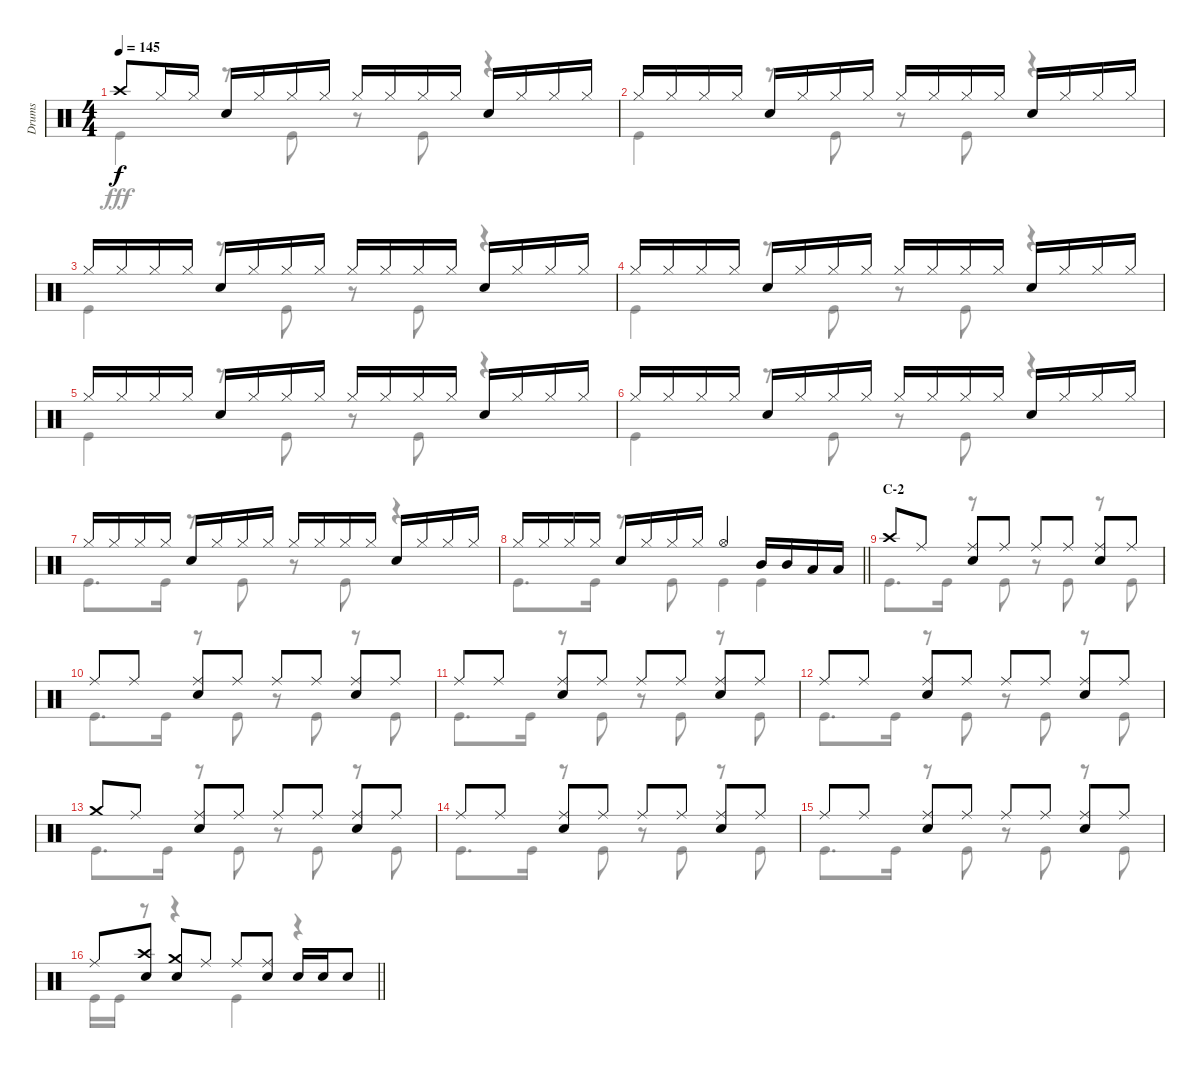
\track ("Drums" "Drums") {instrument percussion}
\staff {score}
\articulation defaults
\voice
\ts (4 4)
\tempo 145
\clef neutral
\ks c "Crash high (hit)".8{dy f} "Hi-Hat (closed)".16 "Hi-Hat (closed)".16 "Snare (hit) 2".16 "Hi-Hat (closed)".16 "Hi-Hat (closed)".16 "Hi-Hat (closed)".16 "Hi-Hat (closed)".16 "Hi-Hat (closed)".16 "Hi-Hat (closed)".16 "Hi-Hat (closed)".16 "Snare (hit) 2".16 "Hi-Hat (closed)".16 "Hi-Hat (closed)".16 "Hi-Hat (closed)".16
|
"Hi-Hat (closed)".16 "Hi-Hat (closed)".16 "Hi-Hat (closed)".16 "Hi-Hat (closed)".16 "Snare (hit) 2".16 "Hi-Hat (closed)".16 "Hi-Hat (closed)".16 "Hi-Hat (closed)".16 "Hi-Hat (closed)".16 "Hi-Hat (closed)".16 "Hi-Hat (closed)".16 "Hi-Hat (closed)".16 "Snare (hit) 2".16 "Hi-Hat (closed)".16 "Hi-Hat (closed)".16 "Hi-Hat (closed)".16 |
"Hi-Hat (closed)".16 "Hi-Hat (closed)".16 "Hi-Hat (closed)".16 "Hi-Hat (closed)".16 "Snare (hit) 2".16 "Hi-Hat (closed)".16 "Hi-Hat (closed)".16 "Hi-Hat (closed)".16 "Hi-Hat (closed)".16 "Hi-Hat (closed)".16 "Hi-Hat (closed)".16 "Hi-Hat (closed)".16 "Snare (hit) 2".16 "Hi-Hat (closed)".16 "Hi-Hat (closed)".16 "Hi-Hat (closed)".16 |
"Hi-Hat (closed)".16 "Hi-Hat (closed)".16 "Hi-Hat (closed)".16 "Hi-Hat (closed)".16 "Snare (hit) 2".16 "Hi-Hat (closed)".16 "Hi-Hat (closed)".16 "Hi-Hat (closed)".16 "Hi-Hat (closed)".16 "Hi-Hat (closed)".16 "Hi-Hat (closed)".16 "Hi-Hat (closed)".16 "Snare (hit) 2".16 "Hi-Hat (closed)".16 "Hi-Hat (closed)".16 "Hi-Hat (closed)".16 |
"Hi-Hat (closed)".16 "Hi-Hat (closed)".16 "Hi-Hat (closed)".16 "Hi-Hat (closed)".16 "Snare (hit) 2".16 "Hi-Hat (closed)".16 "Hi-Hat (closed)".16 "Hi-Hat (closed)".16 "Hi-Hat (closed)".16 "Hi-Hat (closed)".16 "Hi-Hat (closed)".16 "Hi-Hat (closed)".16 "Snare (hit) 2".16 "Hi-Hat (closed)".16 "Hi-Hat (closed)".16 "Hi-Hat (closed)".16 |
"Hi-Hat (closed)".16 "Hi-Hat (closed)".16 "Hi-Hat (closed)".16 "Hi-Hat (closed)".16 "Snare (hit) 2".16 "Hi-Hat (closed)".16 "Hi-Hat (closed)".16 "Hi-Hat (closed)".16 "Hi-Hat (closed)".16 "Hi-Hat (closed)".16 "Hi-Hat (closed)".16 "Hi-Hat (closed)".16 "Snare (hit) 2".16 "Hi-Hat (closed)".16 "Hi-Hat (closed)".16 "Hi-Hat (closed)".16 |
"Hi-Hat (closed)".16 "Hi-Hat (closed)".16 "Hi-Hat (closed)".16 "Hi-Hat (closed)".16 "Snare (hit) 2".16 "Hi-Hat (closed)".16 "Hi-Hat (closed)".16 "Hi-Hat (closed)".16 "Hi-Hat (closed)".16 "Hi-Hat (closed)".16 "Hi-Hat (closed)".16 "Hi-Hat (closed)".16 "Snare (hit) 2".16 "Hi-Hat (closed)".16 "Hi-Hat (closed)".16 "Hi-Hat (closed)".16 |
\barLineRight lightlight "Hi-Hat (closed)".16 "Hi-Hat (closed)".16 "Hi-Hat (closed)".16 "Hi-Hat (closed)".16 "Snare (hit) 2".16 "Hi-Hat (closed)".16 "Hi-Hat (closed)".16 "Hi-Hat (closed)".16 "Hi-Hat (open)".4 "Mid Tom (hit)".16 "Mid Tom (hit)".16 "Low Tom (hit)".16 "Low Tom (hit)".16
|
\section ("" "C-2")
"Crash high (hit)".8 "Ride (middle)".8 ("Ride (middle)" "Snare (hit) 2").8 "Ride (middle)".8 "Ride (middle)".8 "Ride (middle)".8 ("Ride (middle)" "Snare (hit) 2").8 "Ride (middle)".8 |
"Ride (middle)".8 "Ride (middle)".8 ("Ride (middle)" "Snare (hit) 2").8 "Ride (middle)".8 "Ride (middle)".8 "Ride (middle)".8 ("Ride (middle)" "Snare (hit) 2").8 "Ride (middle)".8 |
"Ride (middle)".8 "Ride (middle)".8 ("Ride (middle)" "Snare (hit) 2").8 "Ride (middle)".8 "Ride (middle)".8 "Ride (middle)".8 ("Ride (middle)" "Snare (hit) 2").8 "Ride (middle)".8 |
"Ride (middle)".8 "Ride (middle)".8 ("Ride (middle)" "Snare (hit) 2").8 "Ride (middle)".8 "Ride (middle)".8 "Ride (middle)".8 ("Ride (middle)" "Snare (hit) 2").8 "Ride (middle)".8 |
"Crash medium (hit)".8 "Ride (middle)".8 ("Ride (middle)" "Snare (hit) 2").8 "Ride (middle)".8 "Ride (middle)".8 "Ride (middle)".8 ("Ride (middle)" "Snare (hit) 2").8 "Ride (middle)".8 |
"Ride (middle)".8 "Ride (middle)".8 ("Ride (middle)" "Snare (hit) 2").8 "Ride (middle)".8 "Ride (middle)".8 "Ride (middle)".8 ("Ride (middle)" "Snare (hit) 2").8 "Ride (middle)".8 |
"Ride (middle)".8 "Ride (middle)".8 ("Ride (middle)" "Snare (hit) 2").8 "Ride (middle)".8 "Ride (middle)".8 "Ride (middle)".8 ("Ride (middle)" "Snare (hit) 2").8 "Ride (middle)".8 |
\barLineRight lightlight "Ride (middle)".8
("Crash high (hit)" "Snare (hit) 2").8 ("Crash medium (hit)" "Snare (hit) 2").8 "Ride (middle)".8 "Ride (middle)".8 ("Ride (middle)" "Snare (hit) 2").8 "Snare (hit) 2".16 "Snare (hit) 2".16 "Snare (hit) 2".8
\voice
\clef neutral
\ottava regular
\simile none
\ks c "Kick (hit)".4{dy fff}
r.8 "Kick (hit)".8 r.8 "Kick (hit)".8 r.4 |
"Kick (hit)".4 r.8 "Kick (hit)".8 r.8 "Kick (hit)".8 r.4 |
"Kick (hit)".4 r.8 "Kick (hit)".8 r.8 "Kick (hit)".8 r.4 |
"Kick (hit)".4 r.8 "Kick (hit)".8 r.8 "Kick (hit)".8 r.4 |
"Kick (hit)".4 r.8 "Kick (hit)".8 r.8 "Kick (hit)".8 r.4 |
"Kick (hit)".4 r.8 "Kick (hit)".8 r.8 "Kick (hit)".8 r.4 |
"Kick (hit)".8{d} "Kick (hit)".16 r.8 "Kick (hit)".8 r.8 "Kick (hit)".8 r.4 |
\barLineRight lightlight "Kick (hit)".8{d} "Kick (hit)".16
r.8 "Kick (hit)".8 "Kick (hit)".4 "Kick (hit)".4 |
"Kick (hit)".8{d} "Kick (hit)".16 r.8 "Kick (hit)".8 r.8 "Kick (hit)".8 r.8 "Kick (hit)".8 |
"Kick (hit)".8{d} "Kick (hit)".16 r.8 "Kick (hit)".8 r.8 "Kick (hit)".8 r.8 "Kick (hit)".8 |
"Kick (hit)".8{d} "Kick (hit)".16 r.8 "Kick (hit)".8 r.8 "Kick (hit)".8 r.8 "Kick (hit)".8 |
"Kick (hit)".8{d} "Kick (hit)".16 r.8 "Kick (hit)".8 r.8 "Kick (hit)".8 r.8 "Kick (hit)".8 |
"Kick (hit)".8{d} "Kick (hit)".16 r.8 "Kick (hit)".8 r.8 "Kick (hit)".8 r.8 "Kick (hit)".8 |
"Kick (hit)".8{d} "Kick (hit)".16 r.8 "Kick (hit)".8 r.8 "Kick (hit)".8 r.8 "Kick (hit)".8 |
"Kick (hit)".8{d} "Kick (hit)".16 r.8 "Kick (hit)".8 r.8 "Kick (hit)".8 r.8 "Kick (hit)".8 |
\barLineRight lightlight "Kick (hit)".16 "Kick (hit)".16
r.8 r.4 "Kick (hit)".4 r.4
